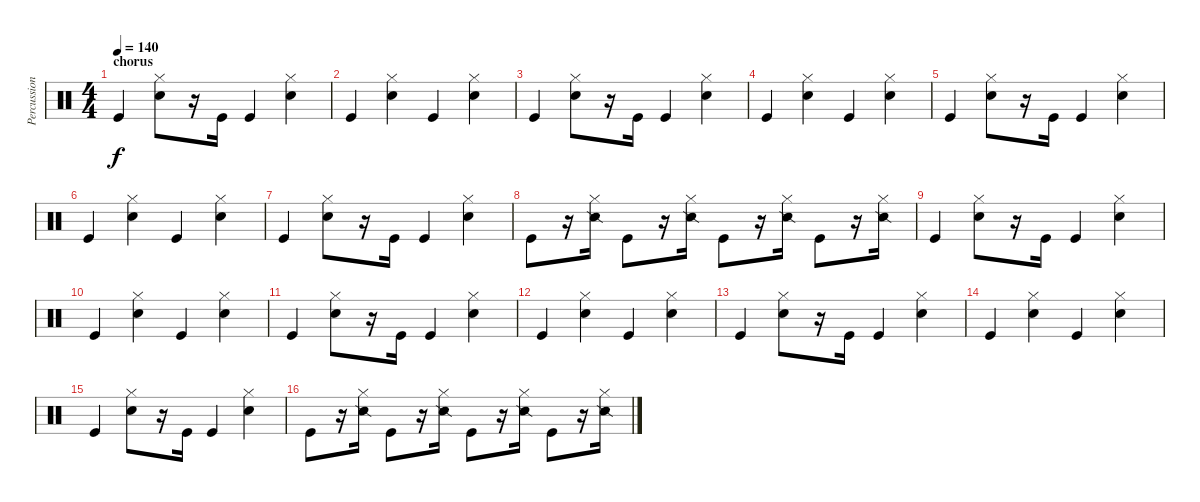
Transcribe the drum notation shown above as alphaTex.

\track ("Percussions" "Percussion") {instrument percussion}
\staff {score}
\articulation defaults
\ts (4 4)
\section ("" "chorus")
\tempo 140
\clef neutral
\ks c "Kick (hit)".4{dy f}
("Hi-Hat (closed)" "Electric Snare (hit)").8 r.16 "Kick (hit)".16 "Kick (hit)".4 ("Hi-Hat (closed)" "Electric Snare (hit)").4 |
"Kick (hit)".4 ("Hi-Hat (closed)" "Electric Snare (hit)").4 "Kick (hit)".4 ("Hi-Hat (closed)" "Electric Snare (hit)").4 |
"Kick (hit)".4 ("Hi-Hat (closed)" "Electric Snare (hit)").8 r.16 "Kick (hit)".16 "Kick (hit)".4 ("Hi-Hat (closed)" "Electric Snare (hit)").4 |
"Kick (hit)".4 ("Hi-Hat (closed)" "Electric Snare (hit)").4 "Kick (hit)".4 ("Hi-Hat (closed)" "Electric Snare (hit)").4 |
"Kick (hit)".4 ("Hi-Hat (closed)" "Electric Snare (hit)").8 r.16 "Kick (hit)".16 "Kick (hit)".4 ("Hi-Hat (closed)" "Electric Snare (hit)").4 |
"Kick (hit)".4 ("Hi-Hat (closed)" "Electric Snare (hit)").4 "Kick (hit)".4 ("Hi-Hat (closed)" "Electric Snare (hit)").4 |
"Kick (hit)".4 ("Hi-Hat (closed)" "Electric Snare (hit)").8 r.16 "Kick (hit)".16 "Kick (hit)".4 ("Hi-Hat (closed)" "Electric Snare (hit)").4 |
"Kick (hit)".8 r.16 ("Hi-Hat (closed)" "Snare (side stick) 2").16 "Kick (hit)".8 r.16 ("Hi-Hat (closed)" "Snare (side stick) 2").16 "Kick (hit)".8 r.16 ("Hi-Hat (closed)" "Snare (side stick) 2").16 "Kick (hit)".8 r.16 ("Hi-Hat (closed)" "Snare (side stick) 2").16 |
"Kick (hit)".4 ("Hi-Hat (closed)" "Electric Snare (hit)").8 r.16 "Kick (hit)".16 "Kick (hit)".4 ("Hi-Hat (closed)" "Electric Snare (hit)").4 |
"Kick (hit)".4 ("Hi-Hat (closed)" "Electric Snare (hit)").4 "Kick (hit)".4 ("Hi-Hat (closed)" "Electric Snare (hit)").4 |
"Kick (hit)".4 ("Hi-Hat (closed)" "Electric Snare (hit)").8 r.16 "Kick (hit)".16 "Kick (hit)".4 ("Hi-Hat (closed)" "Electric Snare (hit)").4 |
"Kick (hit)".4 ("Hi-Hat (closed)" "Electric Snare (hit)").4 "Kick (hit)".4 ("Hi-Hat (closed)" "Electric Snare (hit)").4 |
"Kick (hit)".4 ("Hi-Hat (closed)" "Electric Snare (hit)").8 r.16 "Kick (hit)".16 "Kick (hit)".4 ("Hi-Hat (closed)" "Electric Snare (hit)").4 |
"Kick (hit)".4 ("Hi-Hat (closed)" "Electric Snare (hit)").4 "Kick (hit)".4 ("Hi-Hat (closed)" "Electric Snare (hit)").4 |
"Kick (hit)".4 ("Hi-Hat (closed)" "Electric Snare (hit)").8 r.16 "Kick (hit)".16 "Kick (hit)".4 ("Hi-Hat (closed)" "Electric Snare (hit)").4 |
"Kick (hit)".8 r.16 ("Hi-Hat (closed)" "Snare (side stick) 2").16 "Kick (hit)".8 r.16 ("Hi-Hat (closed)" "Snare (side stick) 2").16 "Kick (hit)".8 r.16 ("Hi-Hat (closed)" "Snare (side stick) 2").16 "Kick (hit)".8 r.16 ("Hi-Hat (closed)" "Snare (side stick) 2").16
